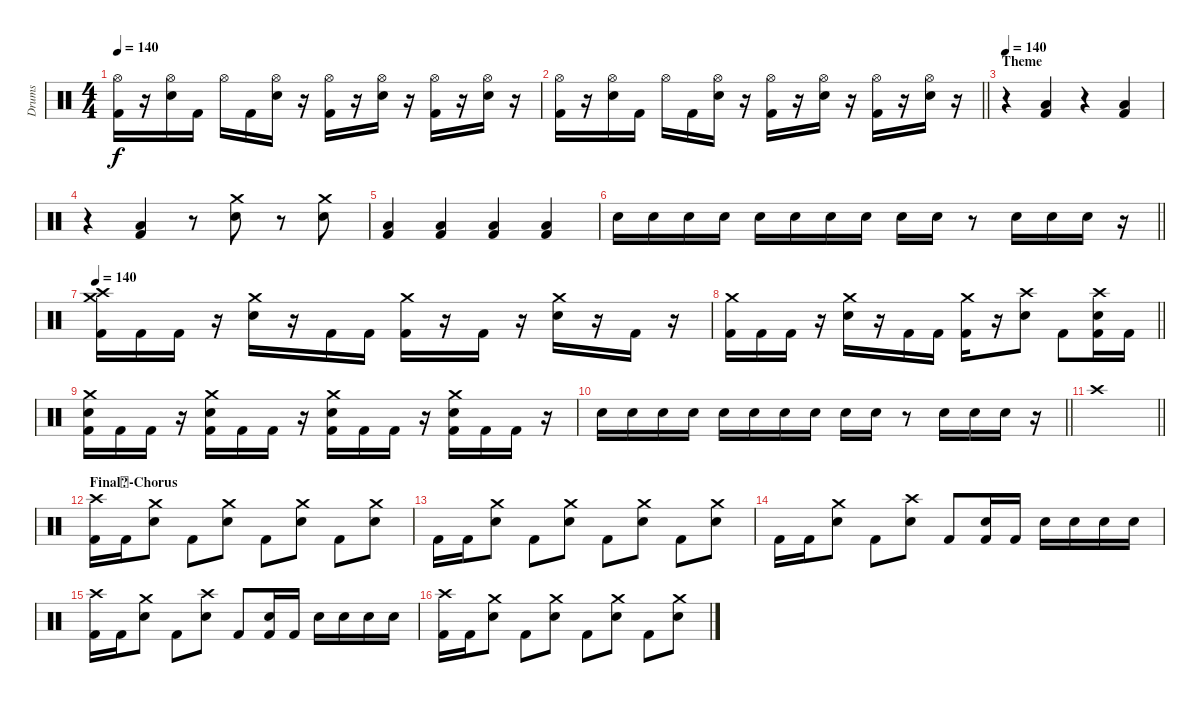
\track ("Drums" "Drums") {instrument percussion}
\staff {score}
\articulation defaults
\ts (4 4)
\tempo 140
\clef neutral
\ks c
("Kick (hit) 2" "Hi-Hat (open)").16{dy f} r.16 ("Snare (hit) 2" "Hi-Hat (open)").16 "Kick (hit) 2".16 "Hi-Hat (open)".16 "Kick (hit) 2".16 ("Snare (hit) 2" "Hi-Hat (open)").16 r.16 ("Kick (hit) 2" "Hi-Hat (open)").16 r.16 ("Snare (hit) 2" "Hi-Hat (open)").16 r.16 ("Kick (hit) 2" "Hi-Hat (open)").16 r.16 ("Snare (hit) 2" "Hi-Hat (open)").16 r.16 |
\barLineRight lightlight
("Kick (hit) 2" "Hi-Hat (open)").16 r.16 ("Snare (hit) 2" "Hi-Hat (open)").16 "Kick (hit) 2".16 "Hi-Hat (open)".16 "Kick (hit) 2".16 ("Snare (hit) 2" "Hi-Hat (open)").16 r.16 ("Kick (hit) 2" "Hi-Hat (open)").16 r.16 ("Snare (hit) 2" "Hi-Hat (open)").16 r.16 ("Kick (hit) 2" "Hi-Hat (open)").16 r.16 ("Snare (hit) 2" "Hi-Hat (open)").16 r.16 |
\section ("" "Theme")
\tempo 140
r.4 ("Low Floor Tom (hit)" "Kick (hit) 2").4 r.4 ("Low Floor Tom (hit)" "Kick (hit) 2").4 |
r.4 ("Low Floor Tom (hit)" "Kick (hit) 2").4 r.8 ("Snare (hit) 2" "Crash medium (hit)").8 r.8 ("Snare (hit) 2" "Crash medium (hit)").8 |
("Low Floor Tom (hit)" "Kick (hit) 2").4 ("Low Floor Tom (hit)" "Kick (hit) 2").4 ("Low Floor Tom (hit)" "Kick (hit) 2").4 ("Low Floor Tom (hit)" "Kick (hit) 2").4 |
\barLineRight lightlight "Snare (hit) 2".16 "Snare (hit) 2".16 "Snare (hit) 2".16 "Snare (hit) 2".16 "Snare (hit) 2".16 "Snare (hit) 2".16 "Snare (hit) 2".16 "Snare (hit) 2".16 "Snare (hit) 2".16 "Snare (hit) 2".16
r.8 "Snare (hit) 2".16 "Snare (hit) 2".16 "Snare (hit) 2".16 r.16 |
\tempo 140
("Kick (hit) 2" "Crash medium (hit)" "Crash high (hit)").16 "Kick (hit) 2".16 "Kick (hit) 2".16 r.16 ("Snare (hit) 2" "Crash medium (hit)").16 r.16 "Kick (hit) 2".16 "Kick (hit) 2".16 ("Kick (hit) 2" "Crash medium (hit)").16 r.16 "Kick (hit) 2".16 r.16 ("Snare (hit) 2" "Crash medium (hit)").16 r.16 "Kick (hit) 2".16 r.16 |
\barLineRight lightlight
("Kick (hit) 2" "Crash medium (hit)").16 "Kick (hit) 2".16 "Kick (hit) 2".16 r.16 ("Snare (hit) 2" "Crash medium (hit)").16 r.16 "Kick (hit) 2".16 "Kick (hit) 2".16 ("Kick (hit) 2" "Crash medium (hit)").16 r.16 ("Snare (hit) 2" "Crash high (hit)").8 "Kick (hit) 2".8 ("Snare (hit) 2" "Kick (hit) 2" "Crash high (hit)").16 "Kick (hit) 2".16 |
("Snare (hit) 2" "Kick (hit) 2" "Crash medium (hit)").16 "Kick (hit) 2".16 "Kick (hit) 2".16 r.16 ("Snare (hit) 2" "Kick (hit) 2" "Crash medium (hit)").16 "Kick (hit) 2".16 "Kick (hit) 2".16 r.16 ("Snare (hit) 2" "Kick (hit) 2" "Crash medium (hit)").16 "Kick (hit) 2".16 "Kick (hit) 2".16 r.16 ("Snare (hit) 2" "Kick (hit) 2" "Crash medium (hit)").16 "Kick (hit) 2".16 "Kick (hit) 2".16 r.16 |
\barLineRight lightlight "Snare (hit) 2".16 "Snare (hit) 2".16 "Snare (hit) 2".16 "Snare (hit) 2".16 "Snare (hit) 2".16 "Snare (hit) 2".16 "Snare (hit) 2".16 "Snare (hit) 2".16 "Snare (hit) 2".16 "Snare (hit) 2".16
r.8 "Snare (hit) 2".16 "Snare (hit) 2".16 "Snare (hit) 2".16 r.16 |
\barLineRight lightlight "Crash high (hit)".1
|
\section ("" "Final\u001f-Chorus")
("Kick (hit) 2" "Crash high (hit)").16 "Kick (hit) 2".16 ("Snare (hit) 2" "Crash medium (hit)").8 "Kick (hit) 2".8 ("Snare (hit) 2" "Crash medium (hit)").8 "Kick (hit) 2".8 ("Snare (hit) 2" "Crash medium (hit)").8 "Kick (hit) 2".8 ("Snare (hit) 2" "Crash medium (hit)").8 |
"Kick (hit) 2".16 "Kick (hit) 2".16 ("Snare (hit) 2" "Crash medium (hit)").8 "Kick (hit) 2".8 ("Snare (hit) 2" "Crash medium (hit)").8 "Kick (hit) 2".8 ("Snare (hit) 2" "Crash medium (hit)").8 "Kick (hit) 2".8 ("Snare (hit) 2" "Crash medium (hit)").8 |
"Kick (hit) 2".16 "Kick (hit) 2".16 ("Snare (hit) 2" "Crash medium (hit)").8 "Kick (hit) 2".8 ("Snare (hit) 2" "Crash high (hit)").8 "Kick (hit) 2".8 ("Snare (hit) 2" "Kick (hit) 2").16 "Kick (hit) 2".16 "Snare (hit) 2".16 "Snare (hit) 2".16 "Snare (hit) 2".16 "Snare (hit) 2".16 |
("Kick (hit) 2" "Crash high (hit)").16 "Kick (hit) 2".16 ("Snare (hit) 2" "Crash medium (hit)").8 "Kick (hit) 2".8 ("Snare (hit) 2" "Crash high (hit)").8 "Kick (hit) 2".8 ("Snare (hit) 2" "Kick (hit) 2").16 "Kick (hit) 2".16 "Snare (hit) 2".16 "Snare (hit) 2".16 "Snare (hit) 2".16 "Snare (hit) 2".16 |
("Kick (hit) 2" "Crash high (hit)").16 "Kick (hit) 2".16 ("Snare (hit) 2" "Crash medium (hit)").8 "Kick (hit) 2".8 ("Snare (hit) 2" "Crash medium (hit)").8 "Kick (hit) 2".8 ("Snare (hit) 2" "Crash medium (hit)").8 "Kick (hit) 2".8 ("Snare (hit) 2" "Crash medium (hit)").8
